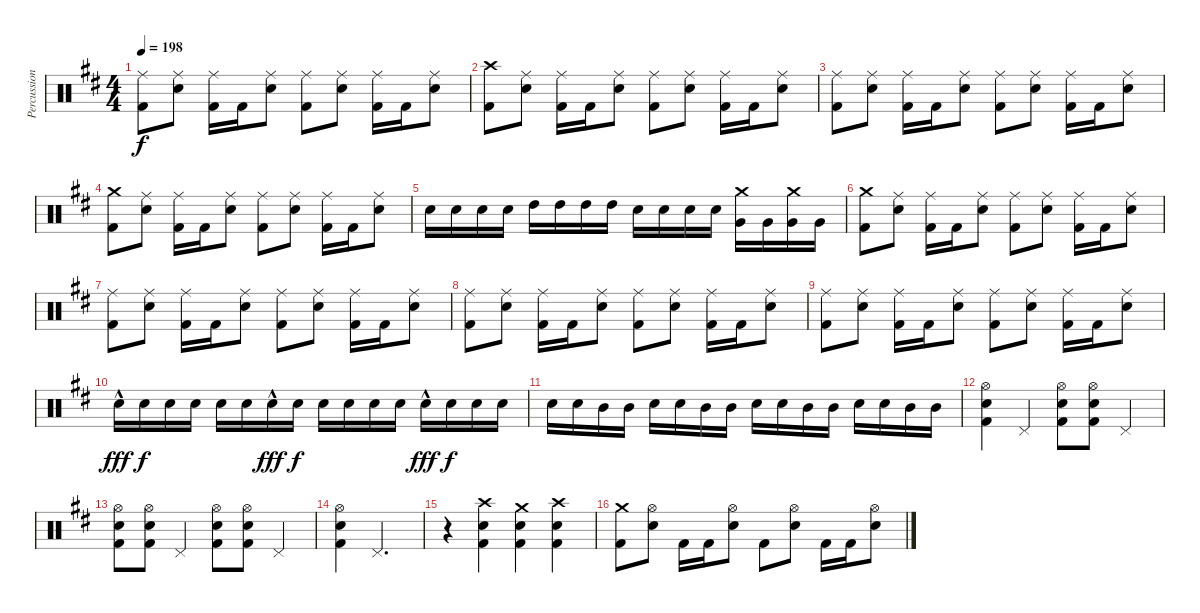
\track ("Percussion" "Percussion") {instrument percussion}
\staff {score}
\articulation defaults
\ts (4 4)
\tempo 198
\clef neutral
\ks bminor
("Ride (middle)" "Kick (hit) 2").8{dy f} ("Ride (middle)" "Snare (hit) 2").8 ("Ride (middle)" "Kick (hit) 2").16 "Kick (hit) 2".16 ("Ride (middle)" "Snare (hit) 2").8 ("Ride (middle)" "Kick (hit) 2").8 ("Ride (middle)" "Snare (hit) 2").8 ("Ride (middle)" "Kick (hit) 2").16 "Kick (hit) 2".16 ("Ride (middle)" "Snare (hit) 2").8 |
("Crash high (hit)" "Kick (hit) 2").8 ("Ride (middle)" "Snare (hit) 2").8 ("Ride (middle)" "Kick (hit) 2").16 "Kick (hit) 2".16 ("Ride (middle)" "Snare (hit) 2").8 ("Ride (middle)" "Kick (hit) 2").8 ("Ride (middle)" "Snare (hit) 2").8 ("Ride (middle)" "Kick (hit) 2").16 "Kick (hit) 2".16 ("Ride (middle)" "Snare (hit) 2").8 |
("Ride (middle)" "Kick (hit) 2").8 ("Ride (middle)" "Snare (hit) 2").8 ("Ride (middle)" "Kick (hit) 2").16 "Kick (hit) 2".16 ("Ride (middle)" "Snare (hit) 2").8 ("Ride (middle)" "Kick (hit) 2").8 ("Ride (middle)" "Snare (hit) 2").8 ("Ride (middle)" "Kick (hit) 2").16 "Kick (hit) 2".16 ("Ride (middle)" "Snare (hit) 2").8 |
("Crash medium (hit)" "Kick (hit) 2").8 ("Ride (middle)" "Snare (hit) 2").8 ("Ride (middle)" "Kick (hit) 2").16 "Kick (hit) 2".16 ("Ride (middle)" "Snare (hit) 2").8 ("Ride (middle)" "Kick (hit) 2").8 ("Ride (middle)" "Snare (hit) 2").8 ("Ride (middle)" "Kick (hit) 2").16 "Kick (hit) 2".16 ("Ride (middle)" "Snare (hit) 2").8 |
"Snare (hit) 2".16 "Snare (hit) 2".16 "Snare (hit) 2".16 "Snare (hit) 2".16 "High Tom (hit)".16 "High Tom (hit)".16 "High Tom (hit)".16 "High Tom (hit)".16 "Snare (hit) 2".16 "Snare (hit) 2".16 "Snare (hit) 2".16 "Snare (hit) 2".16 ("Crash medium (hit)" "Very Low Tom (hit)").16 "Very Low Tom (hit)".16 ("Crash medium (hit)" "Very Low Tom (hit)").16 "Very Low Tom (hit)".16 |
("Crash medium (hit)" "Kick (hit) 2").8 ("Ride (middle)" "Snare (hit) 2").8 ("Ride (middle)" "Kick (hit) 2").16 "Kick (hit) 2".16 ("Ride (middle)" "Snare (hit) 2").8 ("Ride (middle)" "Kick (hit) 2").8 ("Ride (middle)" "Snare (hit) 2").8 ("Ride (middle)" "Kick (hit) 2").16 "Kick (hit) 2".16 ("Ride (middle)" "Snare (hit) 2").8 |
("Ride (middle)" "Kick (hit) 2").8 ("Ride (middle)" "Snare (hit) 2").8 ("Ride (middle)" "Kick (hit) 2").16 "Kick (hit) 2".16 ("Ride (middle)" "Snare (hit) 2").8 ("Ride (middle)" "Kick (hit) 2").8 ("Ride (middle)" "Snare (hit) 2").8 ("Ride (middle)" "Kick (hit) 2").16 "Kick (hit) 2".16 ("Ride (middle)" "Snare (hit) 2").8 |
("Ride (middle)" "Kick (hit) 2").8 ("Ride (middle)" "Snare (hit) 2").8 ("Ride (middle)" "Kick (hit) 2").16 "Kick (hit) 2".16 ("Ride (middle)" "Snare (hit) 2").8 ("Ride (middle)" "Kick (hit) 2").8 ("Ride (middle)" "Snare (hit) 2").8 ("Ride (middle)" "Kick (hit) 2").16 "Kick (hit) 2".16 ("Ride (middle)" "Snare (hit) 2").8 |
("Ride (middle)" "Kick (hit) 2").8 ("Ride (middle)" "Snare (hit) 2").8 ("Ride (middle)" "Kick (hit) 2").16 "Kick (hit) 2".16 ("Ride (middle)" "Snare (hit) 2").8 ("Ride (middle)" "Kick (hit) 2").8 ("Ride (middle)" "Snare (hit) 2").8 ("Ride (middle)" "Kick (hit) 2").16 "Kick (hit) 2".16 ("Ride (middle)" "Snare (hit) 2").8 |
"Snare (hit) 2"{hac}.16{dy fff} "Snare (hit) 2".16{dy f} "Snare (hit) 2".16 "Snare (hit) 2".16 "Snare (hit) 2".16 "Snare (hit) 2".16 "Snare (hit) 2"{hac}.16{dy fff} "Snare (hit) 2".16{dy f} "Snare (hit) 2".16 "Snare (hit) 2".16 "Snare (hit) 2".16 "Snare (hit) 2".16 "Snare (hit) 2"{hac}.16{dy fff} "Snare (hit) 2".16{dy f} "Snare (hit) 2".16 "Snare (hit) 2".16 |
"Snare (hit) 2".16 "Snare (hit) 2".16 "Mid Tom (hit)".16 "Mid Tom (hit)".16 "Snare (hit) 2".16 "Snare (hit) 2".16 "Mid Tom (hit)".16 "Mid Tom (hit)".16 "Snare (hit) 2".16 "Snare (hit) 2".16 "Mid Tom (hit)".16 "Mid Tom (hit)".16 "Snare (hit) 2".16 "Snare (hit) 2".16 "Mid Tom (hit)".16 "Mid Tom (hit)".16 |
("Hi-Hat (open)" "Snare (hit) 2" "Kick (hit) 2").4 "Pedal Hi-Hat (hit)".4 ("Hi-Hat (open)" "Snare (hit) 2" "Kick (hit) 2").8 ("Hi-Hat (open)" "Snare (hit) 2" "Kick (hit) 2").8 "Pedal Hi-Hat (hit)".4 |
("Hi-Hat (open)" "Snare (hit) 2" "Kick (hit) 2").8 ("Hi-Hat (open)" "Snare (hit) 2" "Kick (hit) 2").8 "Pedal Hi-Hat (hit)".4 ("Hi-Hat (open)" "Snare (hit) 2" "Kick (hit) 2").8 ("Hi-Hat (open)" "Snare (hit) 2" "Kick (hit) 2").8 "Pedal Hi-Hat (hit)".4 |
("Hi-Hat (open)" "Snare (hit) 2" "Kick (hit) 2").4 "Pedal Hi-Hat (hit)".2{d} |
r.4 ("Crash high (hit)" "Snare (hit) 2" "Kick (hit) 2").4 ("Crash medium (hit)" "Snare (hit) 2" "Kick (hit) 2").4 ("Crash high (hit)" "Snare (hit) 2" "Kick (hit) 2").4 |
("Crash medium (hit)" "Kick (hit) 2").8 ("Hi-Hat (open)" "Snare (hit) 2").8 "Kick (hit) 2".16 "Kick (hit) 2".16 ("Hi-Hat (open)" "Snare (hit) 2").8 "Kick (hit) 2".8 ("Hi-Hat (open)" "Snare (hit) 2").8 "Kick (hit) 2".16 "Kick (hit) 2".16 ("Hi-Hat (open)" "Snare (hit) 2").8
